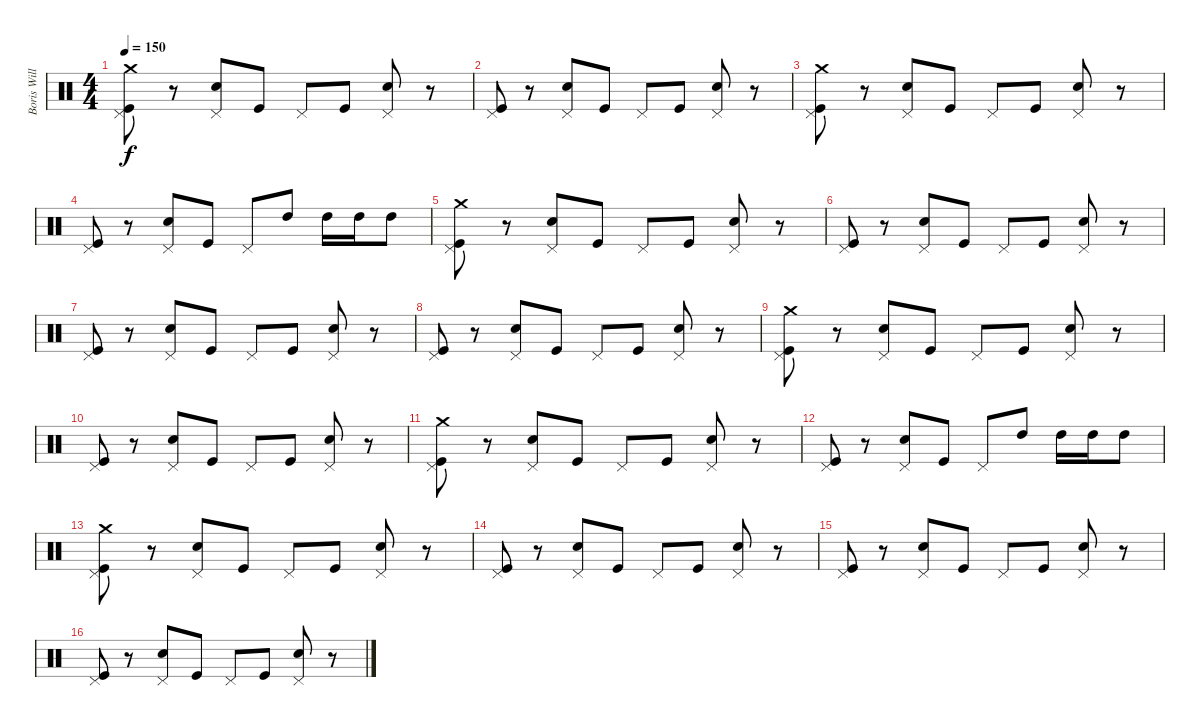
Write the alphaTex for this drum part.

\track ("Boris Williams" "Boris Will") {instrument percussion}
\staff {score}
\articulation defaults
\ts (4 4)
\tempo 150
\clef neutral
\ks c
("Pedal Hi-Hat (hit)" "Kick (hit)" "Crash medium (hit)").8{dy f} r.8 ("Pedal Hi-Hat (hit)" "Snare (hit) 2").8 "Kick (hit)".8 "Pedal Hi-Hat (hit)".8 "Kick (hit)".8 ("Pedal Hi-Hat (hit)" "Snare (hit) 2").8 r.8 |
("Pedal Hi-Hat (hit)" "Kick (hit)").8 r.8 ("Pedal Hi-Hat (hit)" "Snare (hit) 2").8 "Kick (hit)".8 "Pedal Hi-Hat (hit)".8 "Kick (hit)".8 ("Pedal Hi-Hat (hit)" "Snare (hit) 2").8 r.8 |
("Pedal Hi-Hat (hit)" "Kick (hit)" "Crash medium (hit)").8 r.8 ("Pedal Hi-Hat (hit)" "Snare (hit) 2").8 "Kick (hit)".8 "Pedal Hi-Hat (hit)".8 "Kick (hit)".8 ("Pedal Hi-Hat (hit)" "Snare (hit) 2").8 r.8 |
("Pedal Hi-Hat (hit)" "Kick (hit)").8 r.8 ("Pedal Hi-Hat (hit)" "Snare (hit) 2").8 "Kick (hit)".8 "Pedal Hi-Hat (hit)".8 "High Tom (hit)".8 "High Tom (hit)".16 "High Tom (hit)".16 "High Tom (hit)".8 |
("Pedal Hi-Hat (hit)" "Kick (hit)" "Crash medium (hit)").8 r.8 ("Pedal Hi-Hat (hit)" "Snare (hit) 2").8 "Kick (hit)".8 "Pedal Hi-Hat (hit)".8 "Kick (hit)".8 ("Pedal Hi-Hat (hit)" "Snare (hit) 2").8 r.8 |
("Pedal Hi-Hat (hit)" "Kick (hit)").8 r.8 ("Pedal Hi-Hat (hit)" "Snare (hit) 2").8 "Kick (hit)".8 "Pedal Hi-Hat (hit)".8 "Kick (hit)".8 ("Pedal Hi-Hat (hit)" "Snare (hit) 2").8 r.8 |
("Pedal Hi-Hat (hit)" "Kick (hit)").8 r.8 ("Pedal Hi-Hat (hit)" "Snare (hit) 2").8 "Kick (hit)".8 "Pedal Hi-Hat (hit)".8 "Kick (hit)".8 ("Pedal Hi-Hat (hit)" "Snare (hit) 2").8 r.8 |
("Pedal Hi-Hat (hit)" "Kick (hit)").8 r.8 ("Pedal Hi-Hat (hit)" "Snare (hit) 2").8 "Kick (hit)".8 "Pedal Hi-Hat (hit)".8 "Kick (hit)".8 ("Pedal Hi-Hat (hit)" "Snare (hit) 2").8 r.8 |
("Pedal Hi-Hat (hit)" "Kick (hit)" "Crash medium (hit)").8 r.8 ("Pedal Hi-Hat (hit)" "Snare (hit) 2").8 "Kick (hit)".8 "Pedal Hi-Hat (hit)".8 "Kick (hit)".8 ("Pedal Hi-Hat (hit)" "Snare (hit) 2").8 r.8 |
("Pedal Hi-Hat (hit)" "Kick (hit)").8 r.8 ("Pedal Hi-Hat (hit)" "Snare (hit) 2").8 "Kick (hit)".8 "Pedal Hi-Hat (hit)".8 "Kick (hit)".8 ("Pedal Hi-Hat (hit)" "Snare (hit) 2").8 r.8 |
("Pedal Hi-Hat (hit)" "Kick (hit)" "Crash medium (hit)").8 r.8 ("Pedal Hi-Hat (hit)" "Snare (hit) 2").8 "Kick (hit)".8 "Pedal Hi-Hat (hit)".8 "Kick (hit)".8 ("Pedal Hi-Hat (hit)" "Snare (hit) 2").8 r.8 |
("Pedal Hi-Hat (hit)" "Kick (hit)").8 r.8 ("Pedal Hi-Hat (hit)" "Snare (hit) 2").8 "Kick (hit)".8 "Pedal Hi-Hat (hit)".8 "High Tom (hit)".8 "High Tom (hit)".16 "High Tom (hit)".16 "High Tom (hit)".8 |
("Pedal Hi-Hat (hit)" "Kick (hit)" "Crash medium (hit)").8 r.8 ("Pedal Hi-Hat (hit)" "Snare (hit) 2").8 "Kick (hit)".8 "Pedal Hi-Hat (hit)".8 "Kick (hit)".8 ("Pedal Hi-Hat (hit)" "Snare (hit) 2").8 r.8 |
("Pedal Hi-Hat (hit)" "Kick (hit)").8 r.8 ("Pedal Hi-Hat (hit)" "Snare (hit) 2").8 "Kick (hit)".8 "Pedal Hi-Hat (hit)".8 "Kick (hit)".8 ("Pedal Hi-Hat (hit)" "Snare (hit) 2").8 r.8 |
("Pedal Hi-Hat (hit)" "Kick (hit)").8 r.8 ("Pedal Hi-Hat (hit)" "Snare (hit) 2").8 "Kick (hit)".8 "Pedal Hi-Hat (hit)".8 "Kick (hit)".8 ("Pedal Hi-Hat (hit)" "Snare (hit) 2").8 r.8 |
("Pedal Hi-Hat (hit)" "Kick (hit)").8 r.8 ("Pedal Hi-Hat (hit)" "Snare (hit) 2").8 "Kick (hit)".8 "Pedal Hi-Hat (hit)".8 "Kick (hit)".8 ("Pedal Hi-Hat (hit)" "Snare (hit) 2").8 r.8
